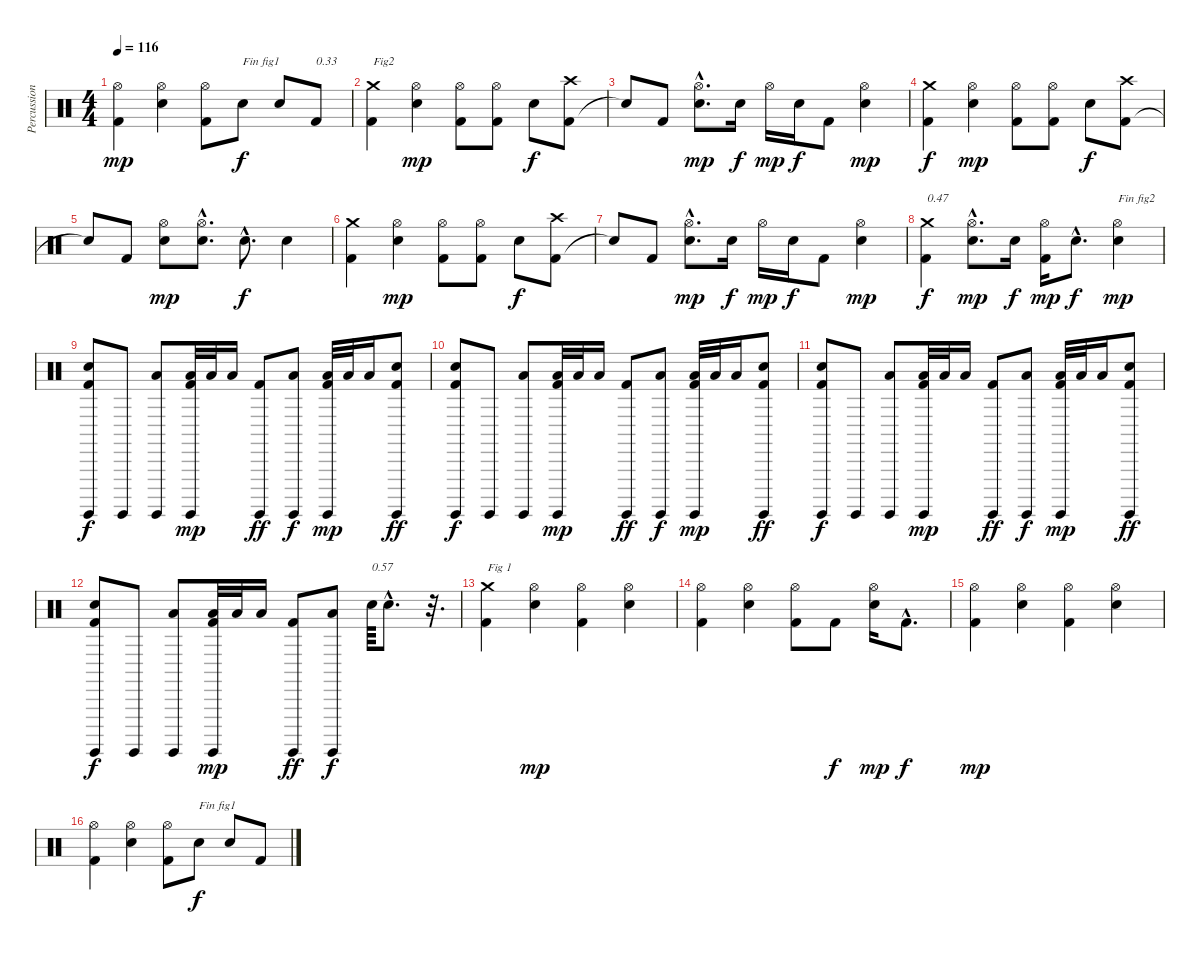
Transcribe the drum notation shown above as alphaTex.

\track ("Percussions" "Percussion") {instrument percussion}
\staff {score}
\articulation defaults
\ts (4 4)
\tempo 116
\clef neutral
\ks c
("Kick (hit) 2" "Hi-Hat (open)").4{dy mp} ("Electric Snare (hit)" "Hi-Hat (open)").4 ("Kick (hit) 2" "Hi-Hat (open)").8 "Electric Snare (hit)".8{txt "Fin fig1" dy f} "Electric Snare (hit)".8 "Kick (hit) 2".8{txt "0.33"} |
("Kick (hit) 2" "Crash medium (hit)").4{txt "Fig2"} ("Electric Snare (hit)" "Hi-Hat (open)").4{dy mp} ("Kick (hit) 2" "Hi-Hat (open)").8 ("Kick (hit) 2" "Hi-Hat (open)").8 "Electric Snare (hit)".8{dy f} ("Kick (hit) 2" "Crash high (hit)").8 |
"Snare (hit)"{t}.8 "Kick (hit) 2".8 ("Electric Snare (hit)"{hac} "Hi-Hat (open)"{hac}).8{d dy mp} "Electric Snare (hit)".16{dy f} "Hi-Hat (open)".16{dy mp} "Electric Snare (hit)".16{dy f} "Kick (hit) 2".8 ("Electric Snare (hit)" "Hi-Hat (open)").4{dy mp} |
("Kick (hit) 2" "Crash medium (hit)").4{dy f} ("Electric Snare (hit)" "Hi-Hat (open)").4{dy mp} ("Kick (hit) 2" "Hi-Hat (open)").8 ("Kick (hit) 2" "Hi-Hat (open)").8 "Electric Snare (hit)".8{dy f} ("Kick (hit) 2" "Crash high (hit)").8 |
"Snare (hit)"{t}.8 "Kick (hit) 2".8 ("Electric Snare (hit)" "Hi-Hat (open)").8{dy mp} ("Electric Snare (hit)"{hac} "Hi-Hat (open)"{hac}).8{d} "Electric Snare (hit)"{hac}.8{d dy f} "Electric Snare (hit)".4 |
("Kick (hit) 2" "Crash medium (hit)").4 ("Electric Snare (hit)" "Hi-Hat (open)").4{dy mp} ("Kick (hit) 2" "Hi-Hat (open)").8 ("Kick (hit) 2" "Hi-Hat (open)").8 "Electric Snare (hit)".8{dy f} ("Kick (hit) 2" "Crash high (hit)").8 |
"Snare (hit)"{t}.8 "Kick (hit) 2".8 ("Electric Snare (hit)"{hac} "Hi-Hat (open)"{hac}).8{d dy mp} "Electric Snare (hit)".16{dy f} "Hi-Hat (open)".16{dy mp} "Electric Snare (hit)".16{dy f} "Kick (hit) 2".8 ("Electric Snare (hit)" "Hi-Hat (open)").4{dy mp} |
("Kick (hit) 2" "Crash medium (hit)").4{txt "0.47" dy f} ("Electric Snare (hit)"{hac} "Hi-Hat (open)"{hac}).8{d dy mp} "Electric Snare (hit)".16{dy f} ("Kick (hit) 2" "Hi-Hat (open)").16{dy mp} "Electric Snare (hit)"{hac}.8{d dy f} ("Electric Snare (hit)" "Hi-Hat (open)").4{txt "Fin fig2" dy mp} |
("Kick (hit) 2" "Electric Snare (hit)" "Surdo (hit)").8{dy f} "Surdo (hit)".8 ("Low Tom (hit)" "Surdo (hit)").8 ("Kick (hit) 2" "Low Tom (hit)" "Surdo (hit)").32{dy mp} "Low Tom (hit)".32 "Low Tom (hit)".16 ("Kick (hit) 2" "Surdo (hit)").8{dy ff} ("Low Tom (hit)" "Surdo (hit)").8{dy f} ("Kick (hit) 2" "Low Tom (hit)" "Surdo (hit)").32{dy mp} "Low Tom (hit)".32 "Low Tom (hit)".16 ("Kick (hit) 2" "Electric Snare (hit)" "Surdo (hit)").8{dy ff} |
("Kick (hit) 2" "Electric Snare (hit)" "Surdo (hit)").8{dy f} "Surdo (hit)".8 ("Low Tom (hit)" "Surdo (hit)").8 ("Kick (hit) 2" "Low Tom (hit)" "Surdo (hit)").32{dy mp} "Low Tom (hit)".32 "Low Tom (hit)".16 ("Kick (hit) 2" "Surdo (hit)").8{dy ff} ("Low Tom (hit)" "Surdo (hit)").8{dy f} ("Kick (hit) 2" "Low Tom (hit)" "Surdo (hit)").32{dy mp} "Low Tom (hit)".32 "Low Tom (hit)".16 ("Kick (hit) 2" "Electric Snare (hit)" "Surdo (hit)").8{dy ff} |
("Kick (hit) 2" "Electric Snare (hit)" "Surdo (hit)").8{dy f} "Surdo (hit)".8 ("Low Tom (hit)" "Surdo (hit)").8 ("Kick (hit) 2" "Low Tom (hit)" "Surdo (hit)").32{dy mp} "Low Tom (hit)".32 "Low Tom (hit)".16 ("Kick (hit) 2" "Surdo (hit)").8{dy ff} ("Low Tom (hit)" "Surdo (hit)").8{dy f} ("Kick (hit) 2" "Low Tom (hit)" "Surdo (hit)").32{dy mp} "Low Tom (hit)".32 "Low Tom (hit)".16 ("Kick (hit) 2" "Electric Snare (hit)" "Surdo (hit)").8{dy ff} |
("Kick (hit) 2" "Electric Snare (hit)" "Surdo (hit)").8{dy f} "Surdo (hit)".8 ("Low Tom (hit)" "Surdo (hit)").8 ("Kick (hit) 2" "Low Tom (hit)" "Surdo (hit)").32{dy mp} "Low Tom (hit)".32 "Low Tom (hit)".16 ("Kick (hit) 2" "Surdo (hit)").8{dy ff} ("Low Tom (hit)" "Surdo (hit)").8{dy f} "Electric Snare (hit)".64{txt "0.57"} "Electric Snare (hit)"{hac}.8{d} r.32{d} |
("Kick (hit) 2" "Crash medium (hit)").4{txt "Fig 1"} ("Electric Snare (hit)" "Hi-Hat (open)").4{dy mp} ("Kick (hit) 2" "Hi-Hat (open)").4 ("Electric Snare (hit)" "Hi-Hat (open)").4 |
("Kick (hit) 2" "Hi-Hat (open)").4 ("Electric Snare (hit)" "Hi-Hat (open)").4 ("Kick (hit) 2" "Hi-Hat (open)").8 "Kick (hit) 2".8{dy f} ("Electric Snare (hit)" "Hi-Hat (open)").16{dy mp} "Kick (hit) 2"{hac}.8{d dy f} |
("Kick (hit) 2" "Hi-Hat (open)").4{dy mp} ("Electric Snare (hit)" "Hi-Hat (open)").4 ("Kick (hit) 2" "Hi-Hat (open)").4 ("Electric Snare (hit)" "Hi-Hat (open)").4 |
("Kick (hit) 2" "Hi-Hat (open)").4 ("Electric Snare (hit)" "Hi-Hat (open)").4 ("Kick (hit) 2" "Hi-Hat (open)").8 "Electric Snare (hit)".8{txt "Fin fig1" dy f} "Electric Snare (hit)".8 "Kick (hit) 2".8
